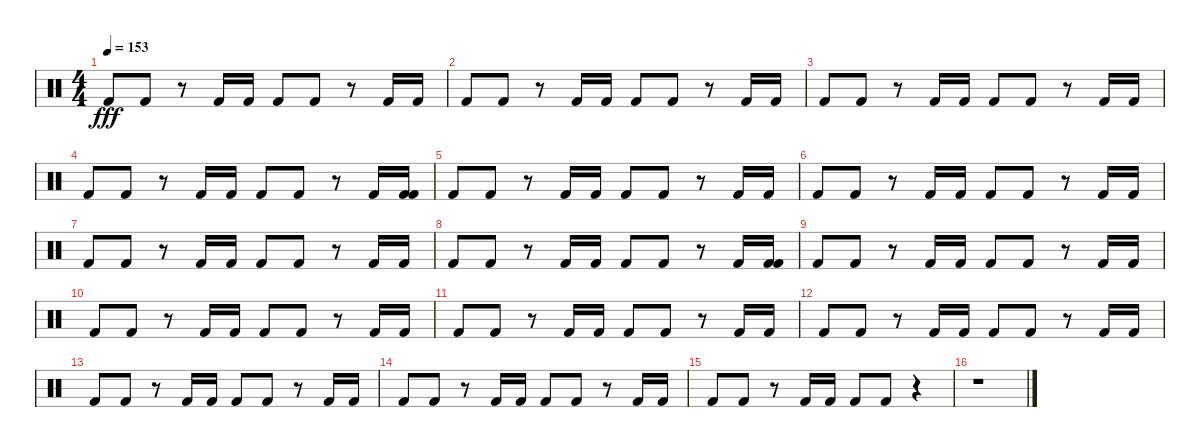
\track "" {instrument percussion}
\staff {score}
\articulation defaults
\ts (4 4)
\tempo 153
\clef neutral
\ks c "Kick (hit) 2".8{dy fff} "Kick (hit) 2".8
r.8 "Kick (hit) 2".16 "Kick (hit) 2".16 "Kick (hit) 2".8 "Kick (hit) 2".8 r.8 "Kick (hit) 2".16 "Kick (hit) 2".16 |
"Kick (hit) 2".8 "Kick (hit) 2".8 r.8 "Kick (hit) 2".16 "Kick (hit) 2".16 "Kick (hit) 2".8 "Kick (hit) 2".8 r.8 "Kick (hit) 2".16 "Kick (hit) 2".16 |
"Kick (hit) 2".8 "Kick (hit) 2".8 r.8 "Kick (hit) 2".16 "Kick (hit) 2".16 "Kick (hit) 2".8 "Kick (hit) 2".8 r.8 "Kick (hit) 2".16 "Kick (hit) 2".16 |
"Kick (hit) 2".8 "Kick (hit) 2".8 r.8 "Kick (hit) 2".16 "Kick (hit) 2".16 "Kick (hit) 2".8 "Kick (hit) 2".8 r.8 "Kick (hit) 2".16 ("Kick (hit) 2" "Kick (hit) 2").16 |
"Kick (hit) 2".8 "Kick (hit) 2".8 r.8 "Kick (hit) 2".16 "Kick (hit) 2".16 "Kick (hit) 2".8 "Kick (hit) 2".8 r.8 "Kick (hit) 2".16 "Kick (hit) 2".16 |
"Kick (hit) 2".8 "Kick (hit) 2".8 r.8 "Kick (hit) 2".16 "Kick (hit) 2".16 "Kick (hit) 2".8 "Kick (hit) 2".8 r.8 "Kick (hit) 2".16 "Kick (hit) 2".16 |
"Kick (hit) 2".8 "Kick (hit) 2".8 r.8 "Kick (hit) 2".16 "Kick (hit) 2".16 "Kick (hit) 2".8 "Kick (hit) 2".8 r.8 "Kick (hit) 2".16 "Kick (hit) 2".16 |
"Kick (hit) 2".8 "Kick (hit) 2".8 r.8 "Kick (hit) 2".16 "Kick (hit) 2".16 "Kick (hit) 2".8 "Kick (hit) 2".8 r.8 "Kick (hit) 2".16 ("Kick (hit) 2" "Kick (hit) 2").16 |
"Kick (hit) 2".8 "Kick (hit) 2".8 r.8 "Kick (hit) 2".16 "Kick (hit) 2".16 "Kick (hit) 2".8 "Kick (hit) 2".8 r.8 "Kick (hit) 2".16 "Kick (hit) 2".16 |
"Kick (hit) 2".8 "Kick (hit) 2".8 r.8 "Kick (hit) 2".16 "Kick (hit) 2".16 "Kick (hit) 2".8 "Kick (hit) 2".8 r.8 "Kick (hit) 2".16 "Kick (hit) 2".16 |
"Kick (hit) 2".8 "Kick (hit) 2".8 r.8 "Kick (hit) 2".16 "Kick (hit) 2".16 "Kick (hit) 2".8 "Kick (hit) 2".8 r.8 "Kick (hit) 2".16 "Kick (hit) 2".16 |
"Kick (hit) 2".8 "Kick (hit) 2".8 r.8 "Kick (hit) 2".16 "Kick (hit) 2".16 "Kick (hit) 2".8 "Kick (hit) 2".8 r.8 "Kick (hit) 2".16 "Kick (hit) 2".16 |
"Kick (hit) 2".8 "Kick (hit) 2".8 r.8 "Kick (hit) 2".16 "Kick (hit) 2".16 "Kick (hit) 2".8 "Kick (hit) 2".8 r.8 "Kick (hit) 2".16 "Kick (hit) 2".16 |
"Kick (hit) 2".8 "Kick (hit) 2".8 r.8 "Kick (hit) 2".16 "Kick (hit) 2".16 "Kick (hit) 2".8 "Kick (hit) 2".8 r.8 "Kick (hit) 2".16 "Kick (hit) 2".16 |
"Kick (hit) 2".8 "Kick (hit) 2".8 r.8 "Kick (hit) 2".16 "Kick (hit) 2".16 "Kick (hit) 2".8 "Kick (hit) 2".8 r.4 |
r.1
